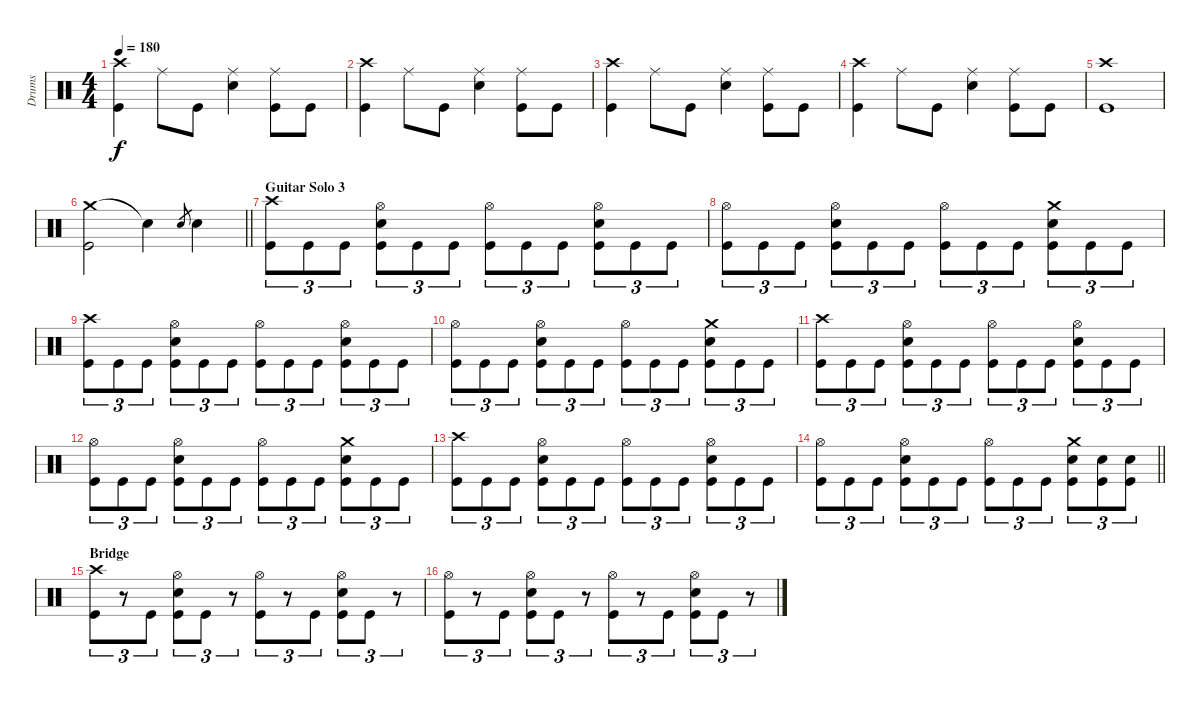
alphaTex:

\track ("Drums" "Drums") {instrument percussion}
\staff {score}
\articulation defaults
\ts (4 4)
\tempo 180
\clef neutral
\ks c
("Crash high (hit)" "Kick (hit)").4{dy f} "Ride (middle)".8 "Kick (hit)".8 ("Ride (middle)" "Electric Snare (hit)").4 ("Ride (middle)" "Kick (hit)").8 "Kick (hit)".8 |
("Crash high (hit)" "Kick (hit)").4 "Ride (middle)".8 "Kick (hit)".8 ("Ride (middle)" "Electric Snare (hit)").4 ("Ride (middle)" "Kick (hit)").8 "Kick (hit)".8 |
("Crash high (hit)" "Kick (hit)").4 "Ride (middle)".8 "Kick (hit)".8 ("Ride (middle)" "Electric Snare (hit)").4 ("Ride (middle)" "Kick (hit)").8 "Kick (hit)".8 |
("Crash high (hit)" "Kick (hit)").4 "Ride (middle)".8 "Kick (hit)".8 ("Ride (middle)" "Electric Snare (hit)").4 ("Ride (middle)" "Kick (hit)").8 "Kick (hit)".8 |
("Crash high (hit)" "Kick (hit)").1 |
\barLineRight lightlight
("Crash medium (hit)" "Kick (hit)").2 "Snare (hit)"{t}.4 "Electric Snare (hit)".8{gr} "Electric Snare (hit)".4 |
\section ("" "Guitar Solo 3")
("Crash high (hit)" "Kick (hit)").8{tu (3 2)} "Kick (hit)".8{tu (3 2)} "Kick (hit)".8{tu (3 2)} ("Hi-Hat (open)" "Electric Snare (hit)" "Kick (hit)").8{tu (3 2)} "Kick (hit)".8{tu (3 2)} "Kick (hit)".8{tu (3 2)} ("Hi-Hat (open)" "Kick (hit)").8{tu (3 2)} "Kick (hit)".8{tu (3 2)} "Kick (hit)".8{tu (3 2)} ("Hi-Hat (open)" "Electric Snare (hit)" "Kick (hit)").8{tu (3 2)} "Kick (hit)".8{tu (3 2)} "Kick (hit)".8{tu (3 2)} |
("Hi-Hat (open)" "Kick (hit)").8{tu (3 2)} "Kick (hit)".8{tu (3 2)} "Kick (hit)".8{tu (3 2)} ("Hi-Hat (open)" "Electric Snare (hit)" "Kick (hit)").8{tu (3 2)} "Kick (hit)".8{tu (3 2)} "Kick (hit)".8{tu (3 2)} ("Hi-Hat (open)" "Kick (hit)").8{tu (3 2)} "Kick (hit)".8{tu (3 2)} "Kick (hit)".8{tu (3 2)} ("Crash medium (hit)" "Electric Snare (hit)" "Kick (hit)").8{tu (3 2)} "Kick (hit)".8{tu (3 2)} "Kick (hit)".8{tu (3 2)} |
("Crash high (hit)" "Kick (hit)").8{tu (3 2)} "Kick (hit)".8{tu (3 2)} "Kick (hit)".8{tu (3 2)} ("Hi-Hat (open)" "Electric Snare (hit)" "Kick (hit)").8{tu (3 2)} "Kick (hit)".8{tu (3 2)} "Kick (hit)".8{tu (3 2)} ("Hi-Hat (open)" "Kick (hit)").8{tu (3 2)} "Kick (hit)".8{tu (3 2)} "Kick (hit)".8{tu (3 2)} ("Hi-Hat (open)" "Electric Snare (hit)" "Kick (hit)").8{tu (3 2)} "Kick (hit)".8{tu (3 2)} "Kick (hit)".8{tu (3 2)} |
("Hi-Hat (open)" "Kick (hit)").8{tu (3 2)} "Kick (hit)".8{tu (3 2)} "Kick (hit)".8{tu (3 2)} ("Hi-Hat (open)" "Electric Snare (hit)" "Kick (hit)").8{tu (3 2)} "Kick (hit)".8{tu (3 2)} "Kick (hit)".8{tu (3 2)} ("Hi-Hat (open)" "Kick (hit)").8{tu (3 2)} "Kick (hit)".8{tu (3 2)} "Kick (hit)".8{tu (3 2)} ("Crash medium (hit)" "Electric Snare (hit)" "Kick (hit)").8{tu (3 2)} "Kick (hit)".8{tu (3 2)} "Kick (hit)".8{tu (3 2)} |
("Crash high (hit)" "Kick (hit)").8{tu (3 2)} "Kick (hit)".8{tu (3 2)} "Kick (hit)".8{tu (3 2)} ("Hi-Hat (open)" "Electric Snare (hit)" "Kick (hit)").8{tu (3 2)} "Kick (hit)".8{tu (3 2)} "Kick (hit)".8{tu (3 2)} ("Hi-Hat (open)" "Kick (hit)").8{tu (3 2)} "Kick (hit)".8{tu (3 2)} "Kick (hit)".8{tu (3 2)} ("Hi-Hat (open)" "Electric Snare (hit)" "Kick (hit)").8{tu (3 2)} "Kick (hit)".8{tu (3 2)} "Kick (hit)".8{tu (3 2)} |
("Hi-Hat (open)" "Kick (hit)").8{tu (3 2)} "Kick (hit)".8{tu (3 2)} "Kick (hit)".8{tu (3 2)} ("Hi-Hat (open)" "Electric Snare (hit)" "Kick (hit)").8{tu (3 2)} "Kick (hit)".8{tu (3 2)} "Kick (hit)".8{tu (3 2)} ("Hi-Hat (open)" "Kick (hit)").8{tu (3 2)} "Kick (hit)".8{tu (3 2)} "Kick (hit)".8{tu (3 2)} ("Crash medium (hit)" "Electric Snare (hit)" "Kick (hit)").8{tu (3 2)} "Kick (hit)".8{tu (3 2)} "Kick (hit)".8{tu (3 2)} |
("Crash high (hit)" "Kick (hit)").8{tu (3 2)} "Kick (hit)".8{tu (3 2)} "Kick (hit)".8{tu (3 2)} ("Hi-Hat (open)" "Electric Snare (hit)" "Kick (hit)").8{tu (3 2)} "Kick (hit)".8{tu (3 2)} "Kick (hit)".8{tu (3 2)} ("Hi-Hat (open)" "Kick (hit)").8{tu (3 2)} "Kick (hit)".8{tu (3 2)} "Kick (hit)".8{tu (3 2)} ("Hi-Hat (open)" "Electric Snare (hit)" "Kick (hit)").8{tu (3 2)} "Kick (hit)".8{tu (3 2)} "Kick (hit)".8{tu (3 2)} |
\barLineRight lightlight
("Hi-Hat (open)" "Kick (hit)").8{tu (3 2)} "Kick (hit)".8{tu (3 2)} "Kick (hit)".8{tu (3 2)} ("Hi-Hat (open)" "Electric Snare (hit)" "Kick (hit)").8{tu (3 2)} "Kick (hit)".8{tu (3 2)} "Kick (hit)".8{tu (3 2)} ("Hi-Hat (open)" "Kick (hit)").8{tu (3 2)} "Kick (hit)".8{tu (3 2)} "Kick (hit)".8{tu (3 2)} ("Crash medium (hit)" "Electric Snare (hit)" "Kick (hit)").8{tu (3 2)} ("Electric Snare (hit)" "Kick (hit)").8{tu (3 2)} ("Electric Snare (hit)" "Kick (hit)").8{tu (3 2)} |
\section ("" "Bridge")
("Crash high (hit)" "Kick (hit)").8{tu (3 2)} r.8{tu (3 2)} "Kick (hit)".8{tu (3 2)} ("Hi-Hat (open)" "Electric Snare (hit)" "Kick (hit)").8{tu (3 2)} "Kick (hit)".8{tu (3 2)} r.8{tu (3 2)} ("Hi-Hat (open)" "Kick (hit)").8{tu (3 2)} r.8{tu (3 2)} "Kick (hit)".8{tu (3 2)} ("Hi-Hat (open)" "Electric Snare (hit)" "Kick (hit)").8{tu (3 2)} "Kick (hit)".8{tu (3 2)} r.8{tu (3 2)} |
("Hi-Hat (open)" "Kick (hit)").8{tu (3 2)} r.8{tu (3 2)} "Kick (hit)".8{tu (3 2)} ("Hi-Hat (open)" "Electric Snare (hit)" "Kick (hit)").8{tu (3 2)} "Kick (hit)".8{tu (3 2)} r.8{tu (3 2)} ("Hi-Hat (open)" "Kick (hit)").8{tu (3 2)} r.8{tu (3 2)} "Kick (hit)".8{tu (3 2)} ("Hi-Hat (open)" "Electric Snare (hit)" "Kick (hit)").8{tu (3 2)} "Kick (hit)".8{tu (3 2)} r.8{tu (3 2)}
